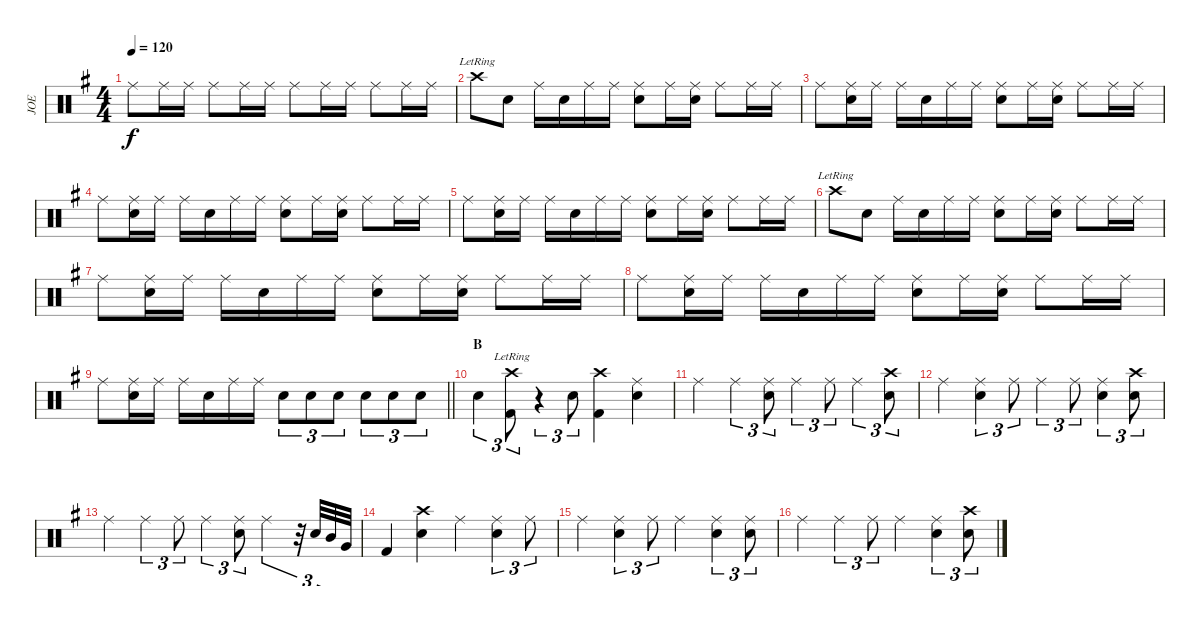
\track ("JOE" "JOE") {instrument percussion}
\staff {score}
\articulation defaults
\ts (4 4)
\tempo 120
\clef neutral
\ks eminor "Ride (middle)".8{dy f} "Ride (middle)".16 "Ride (middle)".16 "Ride (middle)".8 "Ride (middle)".16 "Ride (middle)".16 "Ride (middle)".8 "Ride (middle)".16 "Ride (middle)".16 "Ride (middle)".8 "Ride (middle)".16 "Ride (middle)".16
|
"Crash high (hit)"{lr}.8 "Snare (hit) 2".8 "Ride (middle)".16 "Snare (hit) 2".16 "Ride (middle)".16 "Ride (middle)".16 ("Ride (middle)" "Snare (hit) 2").8 "Ride (middle)".16 ("Ride (middle)" "Snare (hit) 2").16 "Ride (middle)".8 "Ride (middle)".16 "Ride (middle)".16 |
"Ride (middle)".8 ("Ride (middle)" "Snare (hit) 2").16 "Ride (middle)".16 "Ride (middle)".16 "Snare (hit) 2".16 "Ride (middle)".16 "Ride (middle)".16 ("Ride (middle)" "Snare (hit) 2").8 "Ride (middle)".16 ("Ride (middle)" "Snare (hit) 2").16 "Ride (middle)".8 "Ride (middle)".16 "Ride (middle)".16 |
"Ride (middle)".8 ("Ride (middle)" "Snare (hit) 2").16 "Ride (middle)".16 "Ride (middle)".16 "Snare (hit) 2".16 "Ride (middle)".16 "Ride (middle)".16 ("Ride (middle)" "Snare (hit) 2").8 "Ride (middle)".16 ("Ride (middle)" "Snare (hit) 2").16 "Ride (middle)".8 "Ride (middle)".16 "Ride (middle)".16 |
"Ride (middle)".8 ("Ride (middle)" "Snare (hit) 2").16 "Ride (middle)".16 "Ride (middle)".16 "Snare (hit) 2".16 "Ride (middle)".16 "Ride (middle)".16 ("Ride (middle)" "Snare (hit) 2").8 "Ride (middle)".16 ("Ride (middle)" "Snare (hit) 2").16 "Ride (middle)".8 "Ride (middle)".16 "Ride (middle)".16 |
"Crash high (hit)"{lr}.8 "Snare (hit) 2".8 "Ride (middle)".16 "Snare (hit) 2".16 "Ride (middle)".16 "Ride (middle)".16 ("Ride (middle)" "Snare (hit) 2").8 "Ride (middle)".16 ("Ride (middle)" "Snare (hit) 2").16 "Ride (middle)".8 "Ride (middle)".16 "Ride (middle)".16 |
"Ride (middle)".8 ("Ride (middle)" "Snare (hit) 2").16 "Ride (middle)".16 "Ride (middle)".16 "Snare (hit) 2".16 "Ride (middle)".16 "Ride (middle)".16 ("Ride (middle)" "Snare (hit) 2").8 "Ride (middle)".16 ("Ride (middle)" "Snare (hit) 2").16 "Ride (middle)".8 "Ride (middle)".16 "Ride (middle)".16 |
"Ride (middle)".8 ("Ride (middle)" "Snare (hit) 2").16 "Ride (middle)".16 "Ride (middle)".16 "Snare (hit) 2".16 "Ride (middle)".16 "Ride (middle)".16 ("Ride (middle)" "Snare (hit) 2").8 "Ride (middle)".16 ("Ride (middle)" "Snare (hit) 2").16 "Ride (middle)".8 "Ride (middle)".16 "Ride (middle)".16 |
\barLineRight lightlight "Ride (middle)".8
("Ride (middle)" "Snare (hit) 2").16 "Ride (middle)".16 "Ride (middle)".16 "Snare (hit) 2".16 "Ride (middle)".16 "Ride (middle)".16 "Snare (hit) 2".8{tu (3 2)} "Snare (hit) 2".8{tu (3 2)} "Snare (hit) 2".8{tu (3 2)} "Snare (hit) 2".8{tu (3 2)} "Snare (hit) 2".8{tu (3 2)} "Snare (hit) 2".8{tu (3 2)} |
\section ("" "B")
"Snare (hit) 2".4{tu (3 2)} ("Crash high (hit)"{lr} "Kick (hit) 2").8{tu (3 2)} r.4{tu (3 2)} "Snare (hit)".8{tu (3 2)} ("Crash high (hit)" "Kick (hit) 2").4 ("Ride (middle)" "Snare (hit) 2").4 |
"Ride (middle)".4 "Ride (middle)".4{tu (3 2)} ("Ride (middle)" "Snare (hit) 2").8{tu (3 2)} "Ride (middle)".4{tu (3 2)} "Ride (middle)".8{tu (3 2)} "Ride (middle)".4{tu (3 2)} ("Crash high (hit)" "Snare (hit) 2").8{tu (3 2)} |
"Ride (middle)".4 ("Ride (middle)" "Snare (hit) 2").4{tu (3 2)} "Ride (middle)".8{tu (3 2)} "Ride (middle)".4{tu (3 2)} "Ride (middle)".8{tu (3 2)} ("Ride (middle)" "Snare (hit) 2").4{tu (3 2)} ("Crash high (hit)" "Snare (hit) 2").8{tu (3 2)} |
"Ride (middle)".4 "Ride (middle)".4{tu (3 2)} "Ride (middle)".8{tu (3 2)} "Ride (middle)".4{tu (3 2)} ("Ride (middle)" "Snare (hit) 2").8{tu (3 2)} "Ride (middle)".4{tu (3 2)} r.32{tu (3 2)} "Snare (hit) 2".32{tu (3 2)} "Mid Tom (hit)".32{tu (3 2)} "Very Low Tom (hit)".32{tu (3 2)} |
"Kick (hit) 2".4 ("Crash high (hit)" "Snare (hit) 2").4 "Ride (middle)".4 ("Ride (middle)" "Snare (hit) 2").4{tu (3 2)} "Ride (middle)".8{tu (3 2)} |
"Ride (middle)".4 ("Ride (middle)" "Snare (hit) 2").4{tu (3 2)} "Ride (middle)".8{tu (3 2)} "Ride (middle)".4 ("Ride (middle)" "Snare (hit) 2").4{tu (3 2)} ("Ride (middle)" "Snare (hit) 2").8{tu (3 2)} |
"Ride (middle)".4 "Ride (middle)".4{tu (3 2)} "Ride (middle)".8{tu (3 2)} "Ride (middle)".4 ("Ride (middle)" "Snare (hit) 2").4{tu (3 2)} ("Crash high (hit)" "Snare (hit) 2").8{tu (3 2)}
